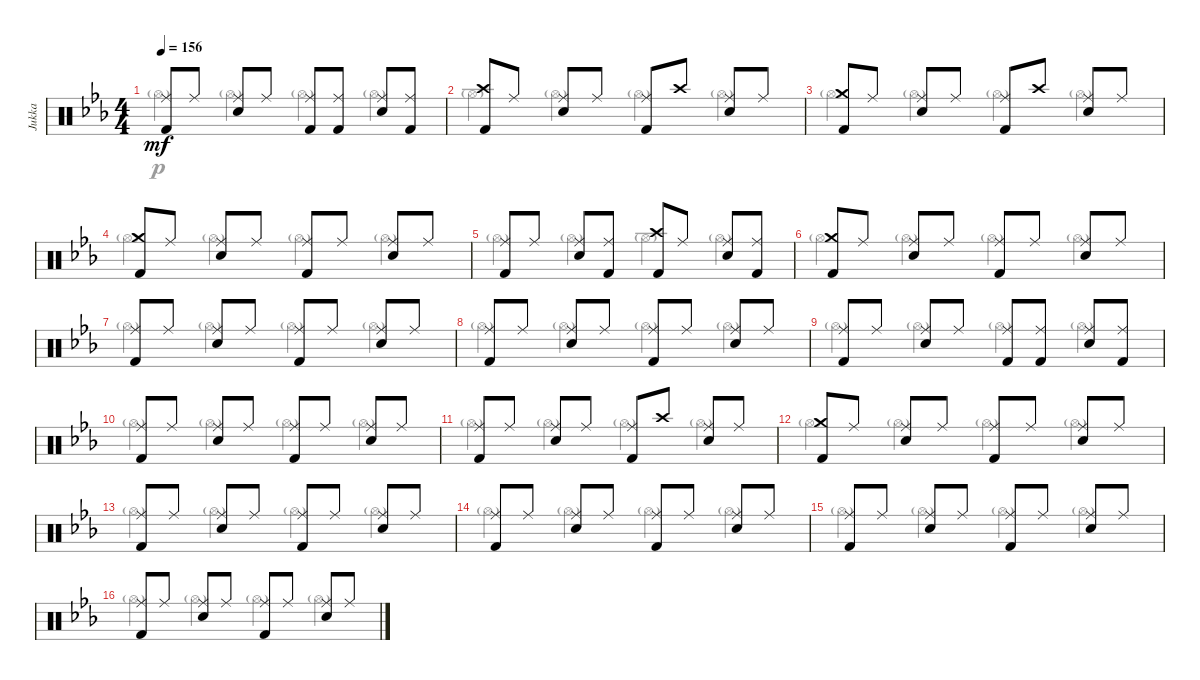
\track ("Jukka" "Jukka") {instrument percussion}
\staff {score}
\articulation defaults
\voice
\ts (4 4)
\tempo 156
\clef neutral
\ks cminor
("Ride (middle)" "Kick (hit) 2").8{dy mf} "Ride (middle)".8 ("Ride (middle)" "Electric Snare (hit)").8 "Ride (middle)".8 ("Ride (middle)" "Kick (hit) 2").8 ("Ride (middle)" "Kick (hit) 2").8 ("Ride (middle)" "Electric Snare (hit)").8 ("Ride (middle)" "Kick (hit) 2").8 |
("Crash high (hit)" "Kick (hit) 2").8 "Ride (middle)".8 ("Ride (middle)" "Electric Snare (hit)").8 "Ride (middle)".8 ("Ride (middle)" "Kick (hit) 2").8 "Crash high (hit)".8 ("Ride (middle)" "Electric Snare (hit)").8 "Ride (middle)".8 |
("Crash medium (hit)" "Kick (hit) 2").8 "Ride (middle)".8 ("Ride (middle)" "Electric Snare (hit)").8 "Ride (middle)".8 ("Ride (middle)" "Kick (hit) 2").8 "Crash high (hit)".8 ("Ride (middle)" "Electric Snare (hit)").8 "Ride (middle)".8 |
("Crash medium (hit)" "Kick (hit) 2").8 "Ride (middle)".8 ("Ride (middle)" "Electric Snare (hit)").8 "Ride (middle)".8 ("Ride (middle)" "Kick (hit) 2").8 "Ride (middle)".8 ("Ride (middle)" "Electric Snare (hit)").8 "Ride (middle)".8 |
("Ride (middle)" "Kick (hit) 2").8 "Ride (middle)".8 ("Ride (middle)" "Electric Snare (hit)").8 ("Ride (middle)" "Kick (hit) 2").8 ("Crash high (hit)" "Kick (hit) 2").8 "Ride (middle)".8 ("Ride (middle)" "Electric Snare (hit)").8 ("Ride (middle)" "Kick (hit) 2").8 |
("Crash medium (hit)" "Kick (hit) 2").8 "Ride (middle)".8 ("Ride (middle)" "Electric Snare (hit)").8 "Ride (middle)".8 ("Ride (middle)" "Kick (hit) 2").8 "Ride (middle)".8 ("Ride (middle)" "Electric Snare (hit)").8 "Ride (middle)".8 |
("Ride (middle)" "Kick (hit) 2").8 "Ride (middle)".8 ("Ride (middle)" "Electric Snare (hit)").8 "Ride (middle)".8 ("Ride (middle)" "Kick (hit) 2").8 "Ride (middle)".8 ("Ride (middle)" "Electric Snare (hit)").8 "Ride (middle)".8 |
("Ride (middle)" "Kick (hit) 2").8 "Ride (middle)".8 ("Ride (middle)" "Electric Snare (hit)").8 "Ride (middle)".8 ("Ride (middle)" "Kick (hit) 2").8 "Ride (middle)".8 ("Ride (middle)" "Electric Snare (hit)").8 "Ride (middle)".8 |
("Ride (middle)" "Kick (hit) 2").8 "Ride (middle)".8 ("Ride (middle)" "Electric Snare (hit)").8 "Ride (middle)".8 ("Ride (middle)" "Kick (hit) 2").8 ("Ride (middle)" "Kick (hit) 2").8 ("Ride (middle)" "Electric Snare (hit)").8 ("Ride (middle)" "Kick (hit) 2").8 |
("Ride (middle)" "Kick (hit) 2").8 "Ride (middle)".8 ("Ride (middle)" "Electric Snare (hit)").8 "Ride (middle)".8 ("Ride (middle)" "Kick (hit) 2").8 "Ride (middle)".8 ("Ride (middle)" "Electric Snare (hit)").8 "Ride (middle)".8 |
("Ride (middle)" "Kick (hit) 2").8 "Ride (middle)".8 ("Ride (middle)" "Electric Snare (hit)").8 "Ride (middle)".8 ("Ride (middle)" "Kick (hit) 2").8 "Crash high (hit)".8 ("Ride (middle)" "Electric Snare (hit)").8 "Ride (middle)".8 |
("Crash medium (hit)" "Kick (hit) 2").8 "Ride (middle)".8 ("Ride (middle)" "Electric Snare (hit)").8 "Ride (middle)".8 ("Ride (middle)" "Kick (hit) 2").8 "Ride (middle)".8 ("Ride (middle)" "Electric Snare (hit)").8 "Ride (middle)".8 |
("Ride (middle)" "Kick (hit) 2").8 "Ride (middle)".8 ("Ride (middle)" "Electric Snare (hit)").8 "Ride (middle)".8 ("Ride (middle)" "Kick (hit) 2").8 "Ride (middle)".8 ("Ride (middle)" "Electric Snare (hit)").8 "Ride (middle)".8 |
("Ride (middle)" "Kick (hit) 2").8 "Ride (middle)".8 ("Ride (middle)" "Electric Snare (hit)").8 "Ride (middle)".8 ("Ride (middle)" "Kick (hit) 2").8 "Ride (middle)".8 ("Ride (middle)" "Electric Snare (hit)").8 "Ride (middle)".8 |
("Ride (middle)" "Kick (hit) 2").8 "Ride (middle)".8 ("Ride (middle)" "Electric Snare (hit)").8 "Ride (middle)".8 ("Ride (middle)" "Kick (hit) 2").8 "Ride (middle)".8 ("Ride (middle)" "Electric Snare (hit)").8 "Ride (middle)".8 |
("Ride (middle)" "Kick (hit) 2").8 "Ride (middle)".8 ("Ride (middle)" "Electric Snare (hit)").8 "Ride (middle)".8 ("Ride (middle)" "Kick (hit) 2").8 "Ride (middle)".8 ("Ride (middle)" "Electric Snare (hit)").8 "Ride (middle)".8
\voice
\clef neutral
\ottava regular
\simile none
\ks cminor "Hi-Hat (open)"{g}.4{dy p} "Hi-Hat (open)"{g}.4 "Hi-Hat (open)"{g}.4 "Hi-Hat (open)"{g}.4
|
"Hi-Hat (open)"{g}.4 "Hi-Hat (open)"{g}.4 "Hi-Hat (open)"{g}.4 "Hi-Hat (open)"{g}.4 |
"Hi-Hat (open)"{g}.4 "Hi-Hat (open)"{g}.4 "Hi-Hat (open)"{g}.4 "Hi-Hat (open)"{g}.4 |
"Hi-Hat (open)"{g}.4 "Hi-Hat (open)"{g}.4 "Hi-Hat (open)"{g}.4 "Hi-Hat (open)"{g}.4 |
"Hi-Hat (open)"{g}.4 "Hi-Hat (open)"{g}.4 "Hi-Hat (open)"{g}.4 "Hi-Hat (open)"{g}.4 |
"Hi-Hat (open)"{g}.4 "Hi-Hat (open)"{g}.4 "Hi-Hat (open)"{g}.4 "Hi-Hat (open)"{g}.4 |
"Hi-Hat (open)"{g}.4 "Hi-Hat (open)"{g}.4 "Hi-Hat (open)"{g}.4 "Hi-Hat (open)"{g}.4 |
"Hi-Hat (open)"{g}.4 "Hi-Hat (open)"{g}.4 "Hi-Hat (open)"{g}.4 "Hi-Hat (open)"{g}.4 |
"Hi-Hat (open)"{g}.4 "Hi-Hat (open)"{g}.4 "Hi-Hat (open)"{g}.4 "Hi-Hat (open)"{g}.4 |
"Hi-Hat (open)"{g}.4 "Hi-Hat (open)"{g}.4 "Hi-Hat (open)"{g}.4 "Hi-Hat (open)"{g}.4 |
"Hi-Hat (open)"{g}.4 "Hi-Hat (open)"{g}.4 "Hi-Hat (open)"{g}.4 "Hi-Hat (open)"{g}.4 |
"Hi-Hat (open)"{g}.4 "Hi-Hat (open)"{g}.4 "Hi-Hat (open)"{g}.4 "Hi-Hat (open)"{g}.4 |
"Hi-Hat (open)"{g}.4 "Hi-Hat (open)"{g}.4 "Hi-Hat (open)"{g}.4 "Hi-Hat (open)"{g}.4 |
"Hi-Hat (open)"{g}.4 "Hi-Hat (open)"{g}.4 "Hi-Hat (open)"{g}.4 "Hi-Hat (open)"{g}.4 |
"Hi-Hat (open)"{g}.4 "Hi-Hat (open)"{g}.4 "Hi-Hat (open)"{g}.4 "Hi-Hat (open)"{g}.4 |
"Hi-Hat (open)"{g}.4 "Hi-Hat (open)"{g}.4 "Hi-Hat (open)"{g}.4 "Hi-Hat (open)"{g}.4
